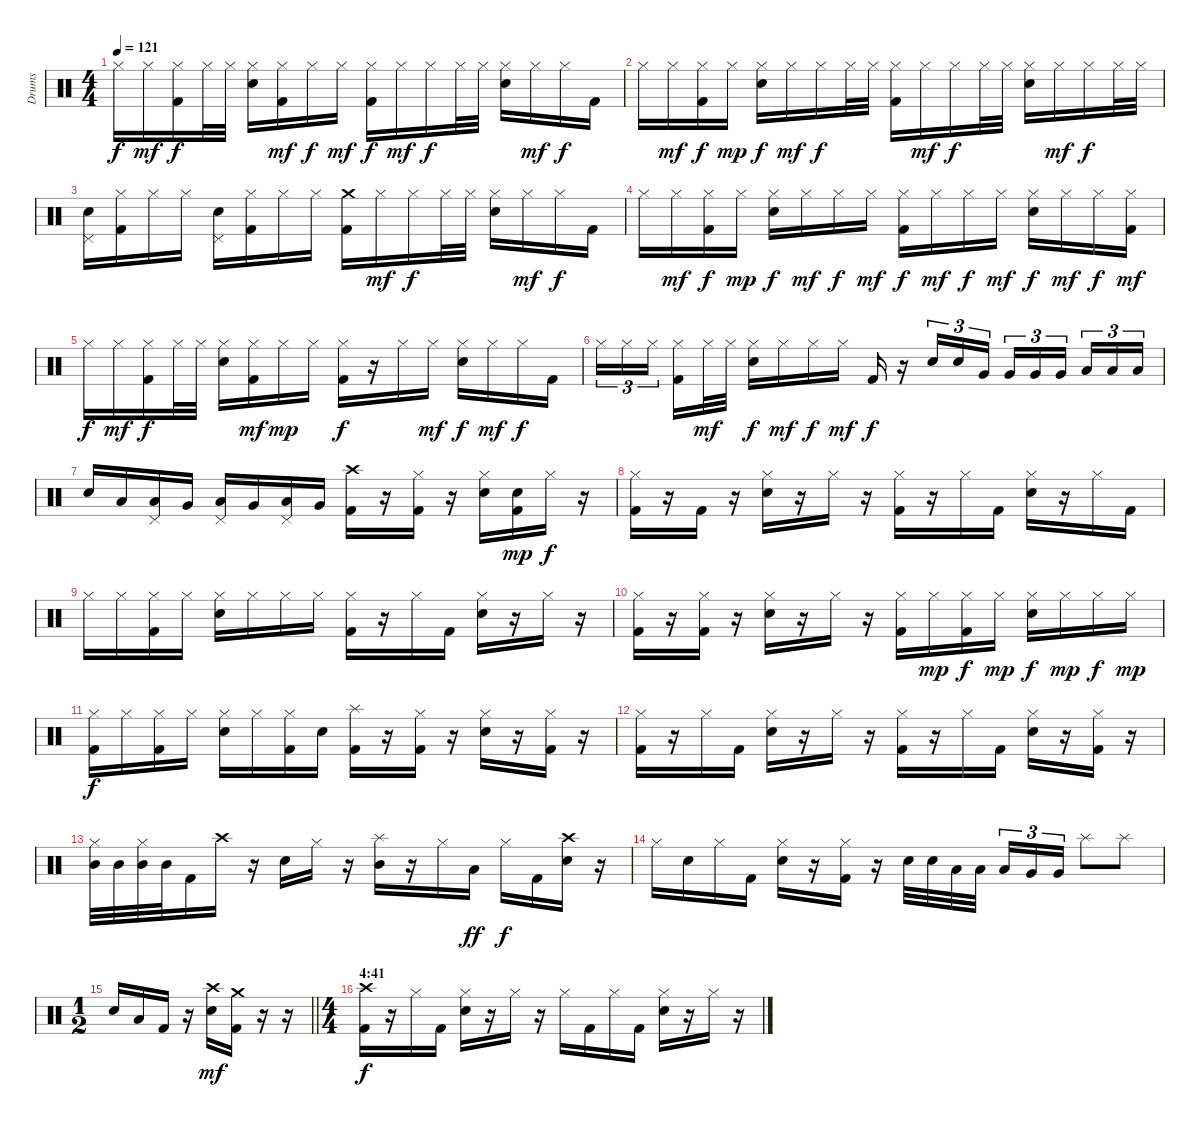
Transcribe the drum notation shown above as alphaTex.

\track ("Drums" "Drums") {instrument percussion}
\staff {score}
\articulation defaults
\ts (4 4)
\tempo 121
\clef neutral
\ks c "Hi-Hat (closed)".16{dy f} "Hi-Hat (closed)".16{dy mf}
("Hi-Hat (closed)" "Kick (hit) 2").16{dy f} "Hi-Hat (closed)".32 "Hi-Hat (closed)".32 ("Hi-Hat (closed)" "Snare (hit) 2").16 ("Hi-Hat (closed)" "Kick (hit) 2").16{dy mf} "Hi-Hat (closed)".16{dy f} "Hi-Hat (closed)".16{dy mf} ("Hi-Hat (closed)" "Kick (hit) 2").16{dy f} "Hi-Hat (closed)".16{dy mf} "Hi-Hat (closed)".16{dy f} "Hi-Hat (closed)".32 "Hi-Hat (closed)".32 ("Hi-Hat (closed)" "Snare (hit) 2").16 "Hi-Hat (closed)".16{dy mf} "Hi-Hat (closed)".16{dy f} "Kick (hit) 2".16 |
"Hi-Hat (closed)".16 "Hi-Hat (closed)".16{dy mf} ("Hi-Hat (closed)" "Kick (hit) 2").16{dy f} "Hi-Hat (closed)".16{dy mp} ("Hi-Hat (closed)" "Snare (hit) 2").16{dy f} "Hi-Hat (closed)".16{dy mf} "Hi-Hat (closed)".16{dy f} "Hi-Hat (closed)".32 "Hi-Hat (closed)".32 ("Hi-Hat (closed)" "Kick (hit) 2").16 "Hi-Hat (closed)".16{dy mf} "Hi-Hat (closed)".16{dy f} "Hi-Hat (closed)".32 "Hi-Hat (closed)".32 ("Hi-Hat (closed)" "Snare (hit) 2").16 "Hi-Hat (closed)".16{dy mf} "Hi-Hat (closed)".16{dy f} "Hi-Hat (closed)".32 "Hi-Hat (closed)".32 |
("Pedal Hi-Hat (hit)" "Snare (hit) 2").16 ("Hi-Hat (closed)" "Kick (hit) 2").16 "Hi-Hat (closed)".16 "Hi-Hat (closed)".16 ("Pedal Hi-Hat (hit)" "Snare (hit) 2").16 ("Hi-Hat (closed)" "Kick (hit) 2").16 "Hi-Hat (closed)".16 "Hi-Hat (closed)".16 ("Crash medium (hit)" "Kick (hit) 2").16 "Hi-Hat (closed)".16{dy mf} "Hi-Hat (closed)".16{dy f} "Hi-Hat (closed)".32 "Hi-Hat (closed)".32 ("Hi-Hat (closed)" "Snare (hit) 2").16 "Hi-Hat (closed)".16{dy mf} "Hi-Hat (closed)".16{dy f} "Kick (hit) 2".16 |
"Hi-Hat (closed)".16 "Hi-Hat (closed)".16{dy mf} ("Hi-Hat (closed)" "Kick (hit) 2").16{dy f} "Hi-Hat (closed)".16{dy mp} ("Hi-Hat (closed)" "Snare (hit) 2").16{dy f} "Hi-Hat (closed)".16{dy mf} "Hi-Hat (closed)".16{dy f} "Hi-Hat (closed)".16{dy mf} ("Hi-Hat (closed)" "Kick (hit) 2").16{dy f} "Hi-Hat (closed)".16{dy mf} "Hi-Hat (closed)".16{dy f} "Hi-Hat (closed)".16{dy mf} ("Hi-Hat (closed)" "Snare (hit) 2").16{dy f} "Hi-Hat (closed)".16{dy mf} "Hi-Hat (closed)".16{dy f} ("Hi-Hat (closed)" "Kick (hit) 2").16{dy mf} |
"Hi-Hat (closed)".16{dy f} "Hi-Hat (closed)".16{dy mf} ("Hi-Hat (closed)" "Kick (hit) 2").16{dy f} "Hi-Hat (closed)".32 "Hi-Hat (closed)".32 ("Hi-Hat (closed)" "Snare (hit) 2").16 ("Hi-Hat (closed)" "Kick (hit) 2").16{dy mf} "Hi-Hat (closed)".16{dy mp} "Hi-Hat (closed)".16 ("Hi-Hat (closed)" "Kick (hit) 2").16{dy f} r.16 "Hi-Hat (closed)".16 "Hi-Hat (closed)".16{dy mf} ("Hi-Hat (closed)" "Snare (hit) 2").16{dy f} "Hi-Hat (closed)".16{dy mf} "Hi-Hat (closed)".16{dy f} "Kick (hit) 2".16 |
"Hi-Hat (closed)".16{tu (3 2)} "Hi-Hat (closed)".16{tu (3 2)} "Hi-Hat (closed)".16{tu (3 2) beam splitsecondary} ("Hi-Hat (closed)" "Kick (hit) 2").16 "Hi-Hat (closed)".32{dy mf} "Hi-Hat (closed)".32 ("Hi-Hat (closed)" "Snare (hit) 2").16{dy f} "Hi-Hat (closed)".16{dy mf} "Hi-Hat (closed)".16{dy f} "Hi-Hat (closed)".16{dy mf} "Kick (hit) 2".16{dy f} r.16 "Snare (hit) 2".16{tu (3 2)} "Snare (hit) 2".16{tu (3 2)} "Very Low Tom (hit)".16{tu (3 2)} "Very Low Tom (hit)".16{tu (3 2)} "Very Low Tom (hit)".16{tu (3 2)} "Very Low Tom (hit)".16{tu (3 2) beam splitsecondary} "Low Floor Tom (hit)".16{tu (3 2)} "Low Floor Tom (hit)".16{tu (3 2)} "Low Floor Tom (hit)".16{tu (3 2)} |
"Snare (hit) 2".16 "Low Tom (hit)".16 ("Pedal Hi-Hat (hit)" "Low Tom (hit)").16 "Very Low Tom (hit)".16 ("Pedal Hi-Hat (hit)" "Low Tom (hit)").16 "Very Low Tom (hit)".16 ("Pedal Hi-Hat (hit)" "Low Tom (hit)").16 "Very Low Tom (hit)".16 ("Crash high (hit)" "Kick (hit) 2").16 r.16 ("Hi-Hat (closed)" "Kick (hit) 2").16 r.16 ("Hi-Hat (closed)" "Snare (hit) 2").16 ("Snare (hit) 2" "Kick (hit) 2").16{dy mp} "Hi-Hat (closed)".16{dy f} r.16 |
("Hi-Hat (closed)" "Kick (hit) 2").16 r.16 "Kick (hit) 2".16 r.16 ("Hi-Hat (closed)" "Snare (hit) 2").16 r.16 "Hi-Hat (closed)".16 r.16 ("Hi-Hat (closed)" "Kick (hit) 2").16 r.16 "Hi-Hat (closed)".16 "Kick (hit) 2".16 ("Hi-Hat (closed)" "Snare (hit) 2").16 r.16 "Hi-Hat (closed)".16 "Kick (hit) 2".16 |
"Hi-Hat (closed)".16 "Hi-Hat (closed)".16 ("Hi-Hat (closed)" "Kick (hit) 2").16 "Hi-Hat (closed)".16 ("Hi-Hat (closed)" "Snare (hit) 2").16 "Hi-Hat (closed)".16 "Hi-Hat (closed)".16 "Hi-Hat (closed)".16 ("Hi-Hat (closed)" "Kick (hit) 2").16 r.16 "Hi-Hat (closed)".16 "Kick (hit) 2".16 ("Hi-Hat (closed)" "Snare (hit) 2").16 r.16 "Hi-Hat (closed)".16 r.16 |
("Hi-Hat (closed)" "Kick (hit) 2").16 r.16 ("Hi-Hat (closed)" "Kick (hit) 2").16 r.16 ("Hi-Hat (closed)" "Snare (hit) 2").16 r.16 "Hi-Hat (closed)".16 r.16 ("Hi-Hat (closed)" "Kick (hit) 2").16 "Hi-Hat (closed)".16{dy mp} ("Hi-Hat (closed)" "Kick (hit) 2").16{dy f} "Hi-Hat (closed)".16{dy mp} ("Hi-Hat (closed)" "Snare (hit) 2").16{dy f} "Hi-Hat (closed)".16{dy mp} "Hi-Hat (closed)".16{dy f} "Hi-Hat (closed)".16{dy mp} |
("Hi-Hat (closed)" "Kick (hit) 2").16{dy f} "Hi-Hat (closed)".16 ("Hi-Hat (closed)" "Kick (hit) 2").16 "Hi-Hat (closed)".16 ("Hi-Hat (closed)" "Snare (hit) 2").16 "Hi-Hat (closed)".16 ("Hi-Hat (closed)" "Kick (hit) 2").16 "Snare (hit) 2".16 ("Splash (hit)" "Kick (hit) 2").16 r.16 ("Hi-Hat (closed)" "Kick (hit) 2").16 r.16 ("Hi-Hat (closed)" "Snare (hit) 2").16 r.16 ("Hi-Hat (closed)" "Kick (hit) 2").16 r.16 |
("Hi-Hat (closed)" "Kick (hit) 2").16 r.16 "Hi-Hat (closed)".16 "Kick (hit) 2".16 ("Hi-Hat (closed)" "Snare (hit) 2").16 r.16 "Hi-Hat (closed)".16 r.16 ("Hi-Hat (closed)" "Kick (hit) 2").16 r.16 "Hi-Hat (closed)".16 "Kick (hit) 2".16 ("Hi-Hat (closed)" "Snare (hit) 2").16 r.16 ("Hi-Hat (closed)" "Kick (hit) 2").16 r.16 |
("Hi-Hat (closed)" "Mid Tom (hit)").32 "Mid Tom (hit)".32 ("Hi-Hat (closed)" "Mid Tom (hit)").32 "Mid Tom (hit)".32 "Kick (hit) 2".16 "Crash high (hit)".16 r.16 "Snare (hit) 2".16 "Hi-Hat (closed)".16 r.16 ("Splash (hit)" "Mid Tom (hit)").16 r.16 "Hi-Hat (closed)".16 "Low Tom (hit)".16{dy ff} "Hi-Hat (closed)".16{dy f} "Kick (hit) 2".16 ("Crash high (hit)" "Snare (hit) 2").16 r.16 |
"Hi-Hat (closed)".16 "Snare (hit) 2".16 "Hi-Hat (closed)".16 "Kick (hit) 2".16 ("Hi-Hat (closed)" "Snare (hit) 2").16 r.16 ("Hi-Hat (closed)" "Kick (hit) 2").16 r.16 "Snare (hit) 2".32 "Snare (hit) 2".32 "Low Tom (hit)".32 "Low Tom (hit)".32{beam splitsecondary} "Low Tom (hit)".16{tu (3 2)} "Very Low Tom (hit)".16{tu (3 2)} "Very Low Tom (hit)".16{tu (3 2)} "Splash (hit)".8 "Splash (hit)".8 |
\ts (1 2)
\barLineRight lightlight "Snare (hit) 2".16 "Low Tom (hit)".16 "Kick (hit) 2".16
r.16 ("Crash high (hit)" "Snare (hit) 2").16{dy mf} ("Crash medium (hit)" "Kick (hit) 2").16 r.16 r.16 |
\ts (4 4)
\section ("" "4:41")
("Crash high (hit)" "Kick (hit) 2").16{dy f} r.16 "Hi-Hat (closed)".16 "Kick (hit) 2".16 ("Hi-Hat (closed)" "Snare (hit) 2").16 r.16 "Hi-Hat (closed)".16 r.16 "Hi-Hat (closed)".16 "Kick (hit) 2".16 "Hi-Hat (closed)".16 "Kick (hit) 2".16 ("Hi-Hat (closed)" "Snare (hit) 2").16 r.16 "Hi-Hat (closed)".16 r.16
